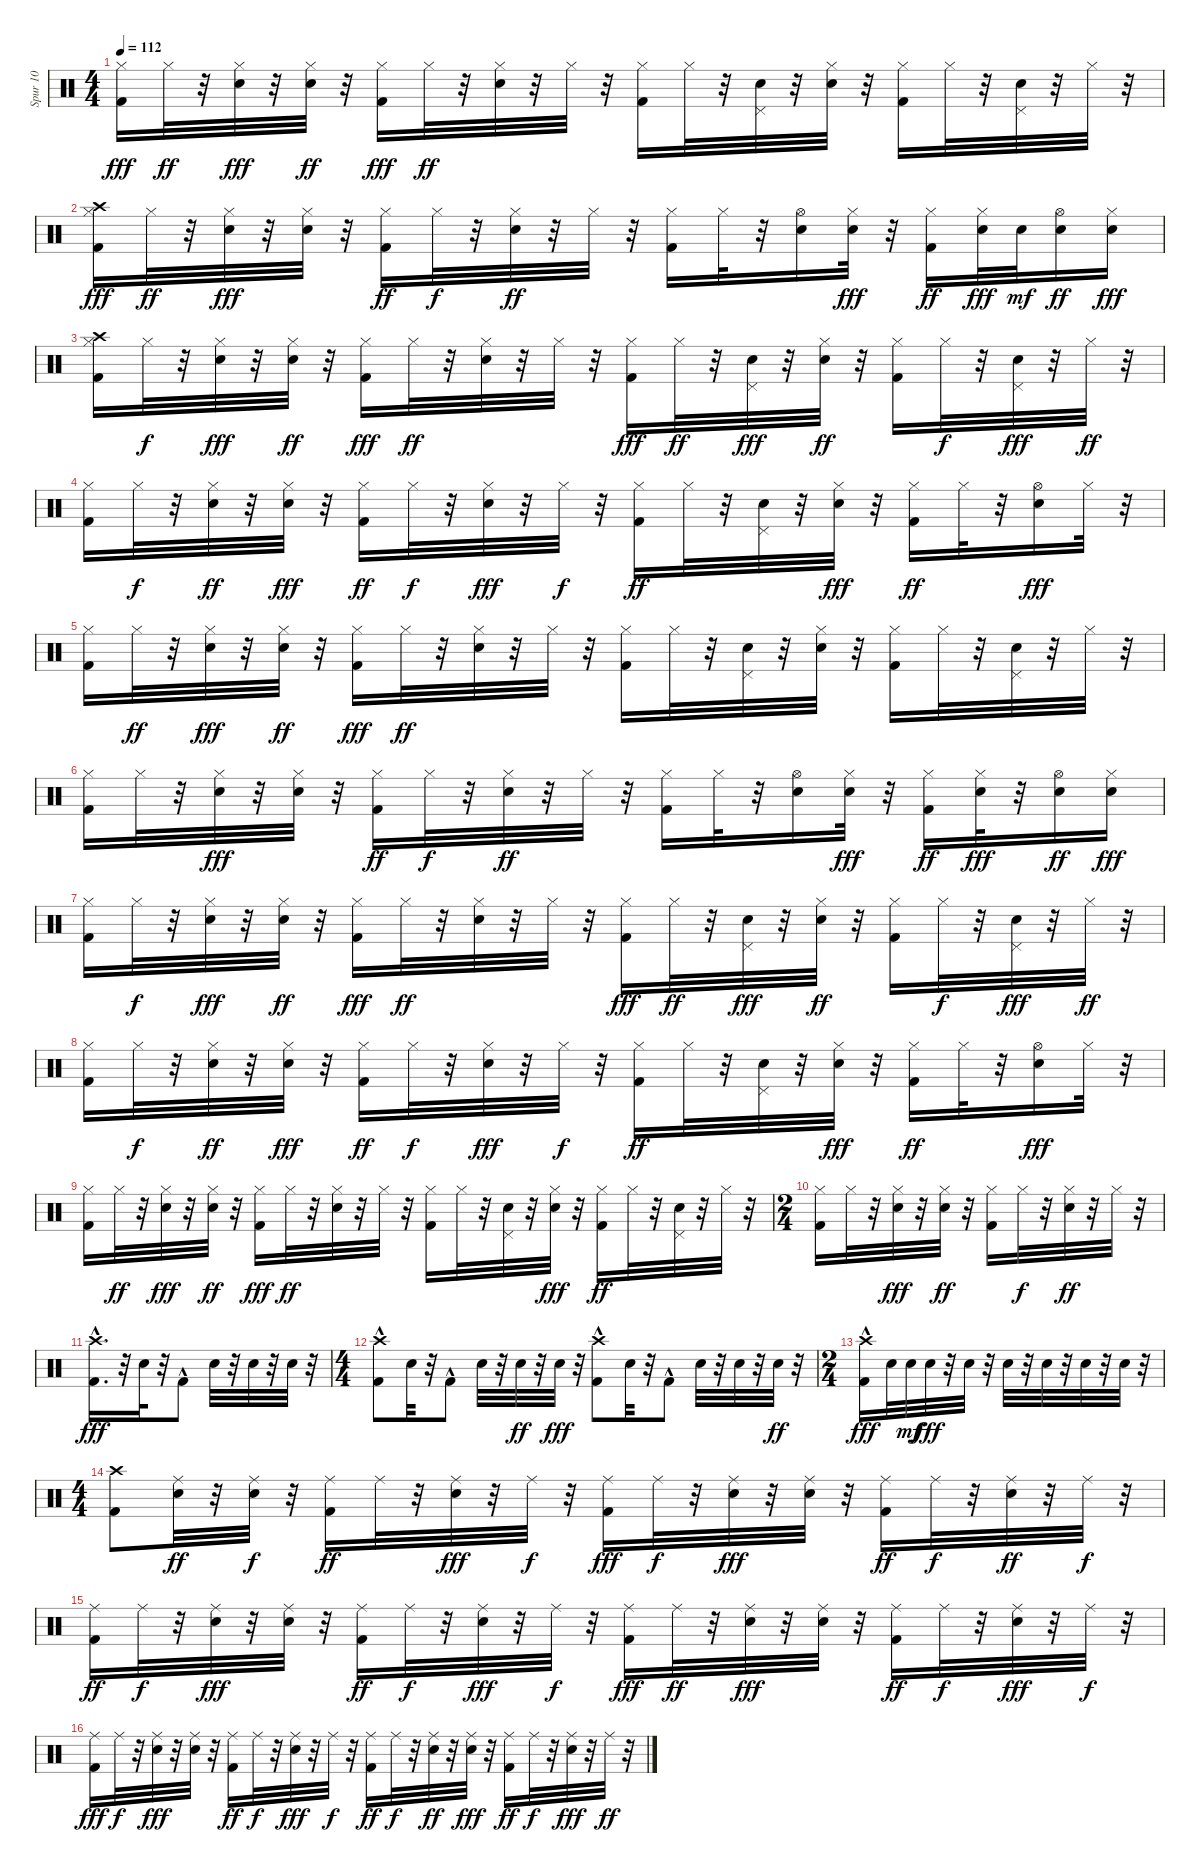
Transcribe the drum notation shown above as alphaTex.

\track ("Spur 10" "Spur 10") {instrument percussion}
\staff {score}
\articulation defaults
\ts (4 4)
\tempo 112
\clef neutral
\ks c
("Kick (hit) 2" "Hi-Hat (closed)").16{dy fff} "Hi-Hat (closed)".32{dy ff} r.32 ("Electric Snare (hit)" "Hi-Hat (closed)").32{dy fff} r.32 ("Electric Snare (hit)" "Hi-Hat (closed)").32{dy ff} r.32 ("Kick (hit) 2" "Hi-Hat (closed)").16{dy fff} "Hi-Hat (closed)".32{dy ff} r.32 ("Electric Snare (hit)" "Hi-Hat (closed)").32 r.32 "Hi-Hat (closed)".32 r.32 ("Kick (hit) 2" "Hi-Hat (closed)").16 "Hi-Hat (closed)".32 r.32 ("Electric Snare (hit)" "Pedal Hi-Hat (hit)").32 r.32 ("Electric Snare (hit)" "Hi-Hat (closed)").32 r.32 ("Kick (hit) 2" "Hi-Hat (closed)").16 "Hi-Hat (closed)".32 r.32 ("Electric Snare (hit)" "Pedal Hi-Hat (hit)").32 r.32 "Hi-Hat (closed)".32 r.32 |
("Kick (hit) 2" "Hi-Hat (closed)" "Crash high (hit)").16{dy fff} "Hi-Hat (closed)".32{dy ff} r.32 ("Electric Snare (hit)" "Hi-Hat (closed)").32{dy fff} r.32 ("Electric Snare (hit)" "Hi-Hat (closed)").32 r.32 ("Kick (hit) 2" "Hi-Hat (closed)").16{dy ff} "Hi-Hat (closed)".32{dy f} r.32 ("Electric Snare (hit)" "Hi-Hat (closed)").32{dy ff} r.32 "Hi-Hat (closed)".32 r.32 ("Kick (hit) 2" "Hi-Hat (closed)").16 "Hi-Hat (closed)".32 r.32 ("Electric Snare (hit)" "Hi-Hat (open)").16 ("Electric Snare (hit)" "Hi-Hat (closed)").32{dy fff} r.32 ("Kick (hit) 2" "Hi-Hat (closed)").16{dy ff} ("Electric Snare (hit)" "Hi-Hat (closed)").32{dy fff} "Electric Snare (hit)".32{dy mf} ("Electric Snare (hit)" "Hi-Hat (open)").16{dy ff} ("Electric Snare (hit)" "Hi-Hat (closed)").16{dy fff} |
("Kick (hit) 2" "Hi-Hat (closed)" "Crash high (hit)").16 "Hi-Hat (closed)".32{dy f} r.32 ("Electric Snare (hit)" "Hi-Hat (closed)").32{dy fff} r.32 ("Electric Snare (hit)" "Hi-Hat (closed)").32{dy ff} r.32 ("Kick (hit) 2" "Hi-Hat (closed)").16{dy fff} "Hi-Hat (closed)".32{dy ff} r.32 ("Electric Snare (hit)" "Hi-Hat (closed)").32 r.32 "Hi-Hat (closed)".32 r.32 ("Kick (hit) 2" "Hi-Hat (closed)").16{dy fff} "Hi-Hat (closed)".32{dy ff} r.32 ("Electric Snare (hit)" "Pedal Hi-Hat (hit)").32{dy fff} r.32 ("Electric Snare (hit)" "Hi-Hat (closed)").32{dy ff} r.32 ("Kick (hit) 2" "Hi-Hat (closed)").16 "Hi-Hat (closed)".32{dy f} r.32 ("Electric Snare (hit)" "Pedal Hi-Hat (hit)").32{dy fff} r.32 "Hi-Hat (closed)".32{dy ff} r.32 |
("Kick (hit) 2" "Hi-Hat (closed)").16 "Hi-Hat (closed)".32{dy f} r.32 ("Electric Snare (hit)" "Hi-Hat (closed)").32{dy ff} r.32 ("Electric Snare (hit)" "Hi-Hat (closed)").32{dy fff} r.32 ("Kick (hit) 2" "Hi-Hat (closed)").16{dy ff} "Hi-Hat (closed)".32{dy f} r.32 ("Electric Snare (hit)" "Hi-Hat (closed)").32{dy fff} r.32 "Hi-Hat (closed)".32{dy f} r.32 ("Kick (hit) 2" "Hi-Hat (closed)").16{dy ff} "Hi-Hat (closed)".32 r.32 ("Electric Snare (hit)" "Pedal Hi-Hat (hit)").32 r.32 ("Electric Snare (hit)" "Hi-Hat (closed)").32{dy fff} r.32 ("Kick (hit) 2" "Hi-Hat (closed)").16{dy ff} "Hi-Hat (closed)".32 r.32 ("Electric Snare (hit)" "Hi-Hat (open)").16{dy fff} "Hi-Hat (closed)".32 r.32 |
("Kick (hit) 2" "Hi-Hat (closed)").16 "Hi-Hat (closed)".32{dy ff} r.32 ("Electric Snare (hit)" "Hi-Hat (closed)").32{dy fff} r.32 ("Electric Snare (hit)" "Hi-Hat (closed)").32{dy ff} r.32 ("Kick (hit) 2" "Hi-Hat (closed)").16{dy fff} "Hi-Hat (closed)".32{dy ff} r.32 ("Electric Snare (hit)" "Hi-Hat (closed)").32 r.32 "Hi-Hat (closed)".32 r.32 ("Kick (hit) 2" "Hi-Hat (closed)").16 "Hi-Hat (closed)".32 r.32 ("Electric Snare (hit)" "Pedal Hi-Hat (hit)").32 r.32 ("Electric Snare (hit)" "Hi-Hat (closed)").32 r.32 ("Kick (hit) 2" "Hi-Hat (closed)").16 "Hi-Hat (closed)".32 r.32 ("Electric Snare (hit)" "Pedal Hi-Hat (hit)").32 r.32 "Hi-Hat (closed)".32 r.32 |
("Kick (hit) 2" "Hi-Hat (closed)").16 "Hi-Hat (closed)".32 r.32 ("Electric Snare (hit)" "Hi-Hat (closed)").32{dy fff} r.32 ("Electric Snare (hit)" "Hi-Hat (closed)").32 r.32 ("Kick (hit) 2" "Hi-Hat (closed)").16{dy ff} "Hi-Hat (closed)".32{dy f} r.32 ("Electric Snare (hit)" "Hi-Hat (closed)").32{dy ff} r.32 "Hi-Hat (closed)".32 r.32 ("Kick (hit) 2" "Hi-Hat (closed)").16 "Hi-Hat (closed)".32 r.32 ("Electric Snare (hit)" "Hi-Hat (open)").16 ("Electric Snare (hit)" "Hi-Hat (closed)").32{dy fff} r.32 ("Kick (hit) 2" "Hi-Hat (closed)").16{dy ff} ("Electric Snare (hit)" "Hi-Hat (closed)").32{dy fff} r.32 ("Electric Snare (hit)" "Hi-Hat (open)").16{dy ff} ("Electric Snare (hit)" "Hi-Hat (closed)").16{dy fff} |
("Kick (hit) 2" "Hi-Hat (closed)").16 "Hi-Hat (closed)".32{dy f} r.32 ("Electric Snare (hit)" "Hi-Hat (closed)").32{dy fff} r.32 ("Electric Snare (hit)" "Hi-Hat (closed)").32{dy ff} r.32 ("Kick (hit) 2" "Hi-Hat (closed)").16{dy fff} "Hi-Hat (closed)".32{dy ff} r.32 ("Electric Snare (hit)" "Hi-Hat (closed)").32 r.32 "Hi-Hat (closed)".32 r.32 ("Kick (hit) 2" "Hi-Hat (closed)").16{dy fff} "Hi-Hat (closed)".32{dy ff} r.32 ("Electric Snare (hit)" "Pedal Hi-Hat (hit)").32{dy fff} r.32 ("Electric Snare (hit)" "Hi-Hat (closed)").32{dy ff} r.32 ("Kick (hit) 2" "Hi-Hat (closed)").16 "Hi-Hat (closed)".32{dy f} r.32 ("Electric Snare (hit)" "Pedal Hi-Hat (hit)").32{dy fff} r.32 "Hi-Hat (closed)".32{dy ff} r.32 |
("Kick (hit) 2" "Hi-Hat (closed)").16 "Hi-Hat (closed)".32{dy f} r.32 ("Electric Snare (hit)" "Hi-Hat (closed)").32{dy ff} r.32 ("Electric Snare (hit)" "Hi-Hat (closed)").32{dy fff} r.32 ("Kick (hit) 2" "Hi-Hat (closed)").16{dy ff} "Hi-Hat (closed)".32{dy f} r.32 ("Electric Snare (hit)" "Hi-Hat (closed)").32{dy fff} r.32 "Hi-Hat (closed)".32{dy f} r.32 ("Kick (hit) 2" "Hi-Hat (closed)").16{dy ff} "Hi-Hat (closed)".32 r.32 ("Electric Snare (hit)" "Pedal Hi-Hat (hit)").32 r.32 ("Electric Snare (hit)" "Hi-Hat (closed)").32{dy fff} r.32 ("Kick (hit) 2" "Hi-Hat (closed)").16{dy ff} "Hi-Hat (closed)".32 r.32 ("Electric Snare (hit)" "Hi-Hat (open)").16{dy fff} "Hi-Hat (closed)".32 r.32 |
("Kick (hit) 2" "Hi-Hat (closed)").16 "Hi-Hat (closed)".32{dy ff} r.32 ("Electric Snare (hit)" "Hi-Hat (closed)").32{dy fff} r.32 ("Electric Snare (hit)" "Hi-Hat (closed)").32{dy ff} r.32 ("Kick (hit) 2" "Hi-Hat (closed)").16{dy fff} "Hi-Hat (closed)".32{dy ff} r.32 ("Electric Snare (hit)" "Hi-Hat (closed)").32 r.32 "Hi-Hat (closed)".32 r.32 ("Kick (hit) 2" "Hi-Hat (closed)").16 "Hi-Hat (closed)".32 r.32 ("Electric Snare (hit)" "Pedal Hi-Hat (hit)").32 r.32 ("Electric Snare (hit)" "Hi-Hat (closed)").32{dy fff} r.32 ("Kick (hit) 2" "Hi-Hat (closed)").16{dy ff} "Hi-Hat (closed)".32 r.32 ("Electric Snare (hit)" "Pedal Hi-Hat (hit)").32 r.32 "Hi-Hat (closed)".32 r.32 |
\ts (2 4)
("Kick (hit) 2" "Hi-Hat (closed)").16 "Hi-Hat (closed)".32 r.32 ("Electric Snare (hit)" "Hi-Hat (closed)").32{dy fff} r.32 ("Electric Snare (hit)" "Hi-Hat (closed)").32{dy ff} r.32 ("Kick (hit) 2" "Hi-Hat (closed)").16 "Hi-Hat (closed)".32{dy f} r.32 ("Electric Snare (hit)" "Hi-Hat (closed)").32{dy ff} r.32 "Hi-Hat (closed)".32 r.32 |
("Kick (hit) 2" "Crash high (hit)"{hac}).16{d dy fff} r.32 "Electric Snare (hit)".32 r.32 "Kick (hit) 2"{hac}.8 "Electric Snare (hit)".32 r.32 "Electric Snare (hit)".32 r.32 "Electric Snare (hit)".32 r.32 |
\ts (4 4)
("Kick (hit) 2" "Crash high (hit)"{hac}).8 "Electric Snare (hit)".32 r.32 "Kick (hit) 2"{hac}.8 "Electric Snare (hit)".32 r.32 "Electric Snare (hit)".32{dy ff} r.32 "Electric Snare (hit)".32{dy fff} r.32 ("Kick (hit) 2" "Crash high (hit)"{hac}).8 "Electric Snare (hit)".32 r.32 "Kick (hit) 2"{hac}.8 "Electric Snare (hit)".32 r.32 "Electric Snare (hit)".32 r.32 "Electric Snare (hit)".32{dy ff} r.32 |
\ts (2 4)
("Kick (hit) 2" "Crash high (hit)"{hac}).16{dy fff} "Electric Snare (hit)".32 "Electric Snare (hit)".32{dy mf} "Electric Snare (hit)".32{dy fff} r.32 "Electric Snare (hit)".32 r.32 "Electric Snare (hit)".32 r.32 "Electric Snare (hit)".32 r.32 "Electric Snare (hit)".32 r.32 "Electric Snare (hit)".32 r.32 |
\ts (4 4)
("Kick (hit) 2" "Crash high (hit)").8 ("Electric Snare (hit)" "Ride (middle)").32{dy ff} r.32 ("Electric Snare (hit)" "Ride (middle)").32{dy f} r.32 ("Kick (hit) 2" "Ride (middle)").16{dy ff} "Ride (middle)".32 r.32 ("Electric Snare (hit)" "Ride (middle)").32{dy fff} r.32 "Ride (middle)".32{dy f} r.32 ("Kick (hit) 2" "Ride (middle)").16{dy fff} "Ride (middle)".32{dy f} r.32 ("Electric Snare (hit)" "Ride (middle)").32{dy fff} r.32 ("Electric Snare (hit)" "Ride (middle)").32 r.32 ("Kick (hit) 2" "Ride (middle)").16{dy ff} "Ride (middle)".32{dy f} r.32 ("Electric Snare (hit)" "Ride (middle)").32{dy ff} r.32 "Ride (middle)".32{dy f} r.32 |
("Kick (hit) 2" "Ride (middle)").16{dy ff} "Ride (middle)".32{dy f} r.32 ("Electric Snare (hit)" "Ride (middle)").32{dy fff} r.32 ("Electric Snare (hit)" "Ride (middle)").32 r.32 ("Kick (hit) 2" "Ride (middle)").16{dy ff} "Ride (middle)".32{dy f} r.32 ("Electric Snare (hit)" "Ride (middle)").32{dy fff} r.32 "Ride (middle)".32{dy f} r.32 ("Kick (hit) 2" "Ride (middle)").16{dy fff} "Ride (middle)".32{dy ff} r.32 ("Electric Snare (hit)" "Ride (middle)").32{dy fff} r.32 ("Electric Snare (hit)" "Ride (middle)").32 r.32 ("Kick (hit) 2" "Ride (middle)").16{dy ff} "Ride (middle)".32{dy f} r.32 ("Electric Snare (hit)" "Ride (middle)").32{dy fff} r.32 "Ride (middle)".32{dy f} r.32 |
("Kick (hit) 2" "Ride (middle)").16{dy fff} "Ride (middle)".32{dy f} r.32 ("Electric Snare (hit)" "Ride (middle)").32{dy fff} r.32 ("Electric Snare (hit)" "Ride (middle)").32 r.32 ("Kick (hit) 2" "Ride (middle)").16{dy ff} "Ride (middle)".32{dy f} r.32 ("Electric Snare (hit)" "Ride (middle)").32{dy fff} r.32 "Ride (middle)".32{dy f} r.32 ("Kick (hit) 2" "Ride (middle)").16{dy ff} "Ride (middle)".32{dy f} r.32 ("Electric Snare (hit)" "Ride (middle)").32{dy ff} r.32 ("Electric Snare (hit)" "Ride (middle)").32{dy fff} r.32 ("Kick (hit) 2" "Ride (middle)").16{dy ff} "Ride (middle)".32{dy f} r.32 ("Electric Snare (hit)" "Ride (middle)").32{dy fff} r.32 "Ride (middle)".32{dy ff} r.32
